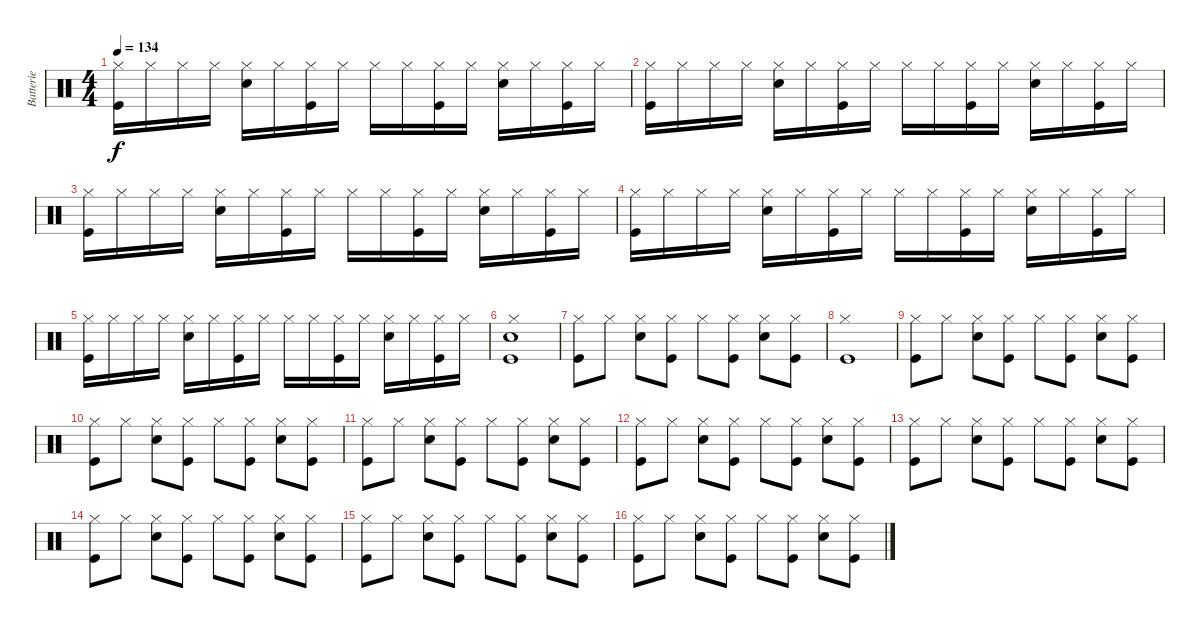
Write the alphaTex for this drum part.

\track ("Batterie" "Batterie") {instrument percussion}
\staff {score}
\articulation defaults
\ts (4 4)
\tempo 134
\clef neutral
\ks c
("Kick (hit)" "Hi-Hat (closed)").16{dy f} "Hi-Hat (closed)".16 "Hi-Hat (closed)".16 "Hi-Hat (closed)".16 ("Snare (hit) 2" "Hi-Hat (closed)").16 "Hi-Hat (closed)".16 ("Kick (hit)" "Hi-Hat (closed)").16 "Hi-Hat (closed)".16 "Hi-Hat (closed)".16 "Hi-Hat (closed)".16 ("Kick (hit)" "Hi-Hat (closed)").16 "Hi-Hat (closed)".16 ("Snare (hit) 2" "Hi-Hat (closed)").16 "Hi-Hat (closed)".16 ("Kick (hit)" "Hi-Hat (closed)").16 "Hi-Hat (closed)".16 |
("Kick (hit)" "Hi-Hat (closed)").16 "Hi-Hat (closed)".16 "Hi-Hat (closed)".16 "Hi-Hat (closed)".16 ("Snare (hit) 2" "Hi-Hat (closed)").16 "Hi-Hat (closed)".16 ("Kick (hit)" "Hi-Hat (closed)").16 "Hi-Hat (closed)".16 "Hi-Hat (closed)".16 "Hi-Hat (closed)".16 ("Kick (hit)" "Hi-Hat (closed)").16 "Hi-Hat (closed)".16 ("Snare (hit) 2" "Hi-Hat (closed)").16 "Hi-Hat (closed)".16 ("Kick (hit)" "Hi-Hat (closed)").16 "Hi-Hat (closed)".16 |
("Kick (hit)" "Hi-Hat (closed)").16 "Hi-Hat (closed)".16 "Hi-Hat (closed)".16 "Hi-Hat (closed)".16 ("Snare (hit) 2" "Hi-Hat (closed)").16 "Hi-Hat (closed)".16 ("Kick (hit)" "Hi-Hat (closed)").16 "Hi-Hat (closed)".16 "Hi-Hat (closed)".16 "Hi-Hat (closed)".16 ("Kick (hit)" "Hi-Hat (closed)").16 "Hi-Hat (closed)".16 ("Snare (hit) 2" "Hi-Hat (closed)").16 "Hi-Hat (closed)".16 ("Kick (hit)" "Hi-Hat (closed)").16 "Hi-Hat (closed)".16 |
("Kick (hit)" "Hi-Hat (closed)").16 "Hi-Hat (closed)".16 "Hi-Hat (closed)".16 "Hi-Hat (closed)".16 ("Snare (hit) 2" "Hi-Hat (closed)").16 "Hi-Hat (closed)".16 ("Kick (hit)" "Hi-Hat (closed)").16 "Hi-Hat (closed)".16 "Hi-Hat (closed)".16 "Hi-Hat (closed)".16 ("Kick (hit)" "Hi-Hat (closed)").16 "Hi-Hat (closed)".16 ("Snare (hit) 2" "Hi-Hat (closed)").16 "Hi-Hat (closed)".16 ("Kick (hit)" "Hi-Hat (closed)").16 "Hi-Hat (closed)".16 |
("Kick (hit)" "Hi-Hat (closed)").16 "Hi-Hat (closed)".16 "Hi-Hat (closed)".16 "Hi-Hat (closed)".16 ("Snare (hit) 2" "Hi-Hat (closed)").16 "Hi-Hat (closed)".16 ("Kick (hit)" "Hi-Hat (closed)").16 "Hi-Hat (closed)".16 "Hi-Hat (closed)".16 "Hi-Hat (closed)".16 ("Kick (hit)" "Hi-Hat (closed)").16 "Hi-Hat (closed)".16 ("Snare (hit) 2" "Hi-Hat (closed)").16 "Hi-Hat (closed)".16 ("Kick (hit)" "Hi-Hat (closed)").16 "Hi-Hat (closed)".16 |
("Kick (hit)" "Snare (hit) 2" "Hi-Hat (closed)").1 |
("Kick (hit)" "Hi-Hat (closed)").8 "Hi-Hat (closed)".8 ("Snare (hit) 2" "Hi-Hat (closed)").8 ("Kick (hit)" "Hi-Hat (closed)").8 "Hi-Hat (closed)".8 ("Kick (hit)" "Hi-Hat (closed)").8 ("Snare (hit) 2" "Hi-Hat (closed)").8 ("Kick (hit)" "Hi-Hat (closed)").8 |
("Kick (hit)" "Hi-Hat (closed)").1 |
("Kick (hit)" "Hi-Hat (closed)").8 "Hi-Hat (closed)".8 ("Snare (hit) 2" "Hi-Hat (closed)").8 ("Kick (hit)" "Hi-Hat (closed)").8 "Hi-Hat (closed)".8 ("Kick (hit)" "Hi-Hat (closed)").8 ("Snare (hit) 2" "Hi-Hat (closed)").8 ("Kick (hit)" "Hi-Hat (closed)").8 |
("Kick (hit)" "Hi-Hat (closed)").8 "Hi-Hat (closed)".8 ("Snare (hit) 2" "Hi-Hat (closed)").8 ("Kick (hit)" "Hi-Hat (closed)").8 "Hi-Hat (closed)".8 ("Kick (hit)" "Hi-Hat (closed)").8 ("Snare (hit) 2" "Hi-Hat (closed)").8 ("Kick (hit)" "Hi-Hat (closed)").8 |
("Kick (hit)" "Hi-Hat (closed)").8 "Hi-Hat (closed)".8 ("Snare (hit) 2" "Hi-Hat (closed)").8 ("Kick (hit)" "Hi-Hat (closed)").8 "Hi-Hat (closed)".8 ("Kick (hit)" "Hi-Hat (closed)").8 ("Snare (hit) 2" "Hi-Hat (closed)").8 ("Kick (hit)" "Hi-Hat (closed)").8 |
("Kick (hit)" "Hi-Hat (closed)").8 "Hi-Hat (closed)".8 ("Snare (hit) 2" "Hi-Hat (closed)").8 ("Kick (hit)" "Hi-Hat (closed)").8 "Hi-Hat (closed)".8 ("Kick (hit)" "Hi-Hat (closed)").8 ("Snare (hit) 2" "Hi-Hat (closed)").8 ("Kick (hit)" "Hi-Hat (closed)").8 |
("Kick (hit)" "Hi-Hat (closed)").8 "Hi-Hat (closed)".8 ("Snare (hit) 2" "Hi-Hat (closed)").8 ("Kick (hit)" "Hi-Hat (closed)").8 "Hi-Hat (closed)".8 ("Kick (hit)" "Hi-Hat (closed)").8 ("Snare (hit) 2" "Hi-Hat (closed)").8 ("Kick (hit)" "Hi-Hat (closed)").8 |
("Kick (hit)" "Hi-Hat (closed)").8 "Hi-Hat (closed)".8 ("Snare (hit) 2" "Hi-Hat (closed)").8 ("Kick (hit)" "Hi-Hat (closed)").8 "Hi-Hat (closed)".8 ("Kick (hit)" "Hi-Hat (closed)").8 ("Snare (hit) 2" "Hi-Hat (closed)").8 ("Kick (hit)" "Hi-Hat (closed)").8 |
("Kick (hit)" "Hi-Hat (closed)").8 "Hi-Hat (closed)".8 ("Snare (hit) 2" "Hi-Hat (closed)").8 ("Kick (hit)" "Hi-Hat (closed)").8 "Hi-Hat (closed)".8 ("Kick (hit)" "Hi-Hat (closed)").8 ("Snare (hit) 2" "Hi-Hat (closed)").8 ("Kick (hit)" "Hi-Hat (closed)").8 |
("Kick (hit)" "Hi-Hat (closed)").8 "Hi-Hat (closed)".8 ("Snare (hit) 2" "Hi-Hat (closed)").8 ("Kick (hit)" "Hi-Hat (closed)").8 "Hi-Hat (closed)".8 ("Kick (hit)" "Hi-Hat (closed)").8 ("Snare (hit) 2" "Hi-Hat (closed)").8 ("Kick (hit)" "Hi-Hat (closed)").8
